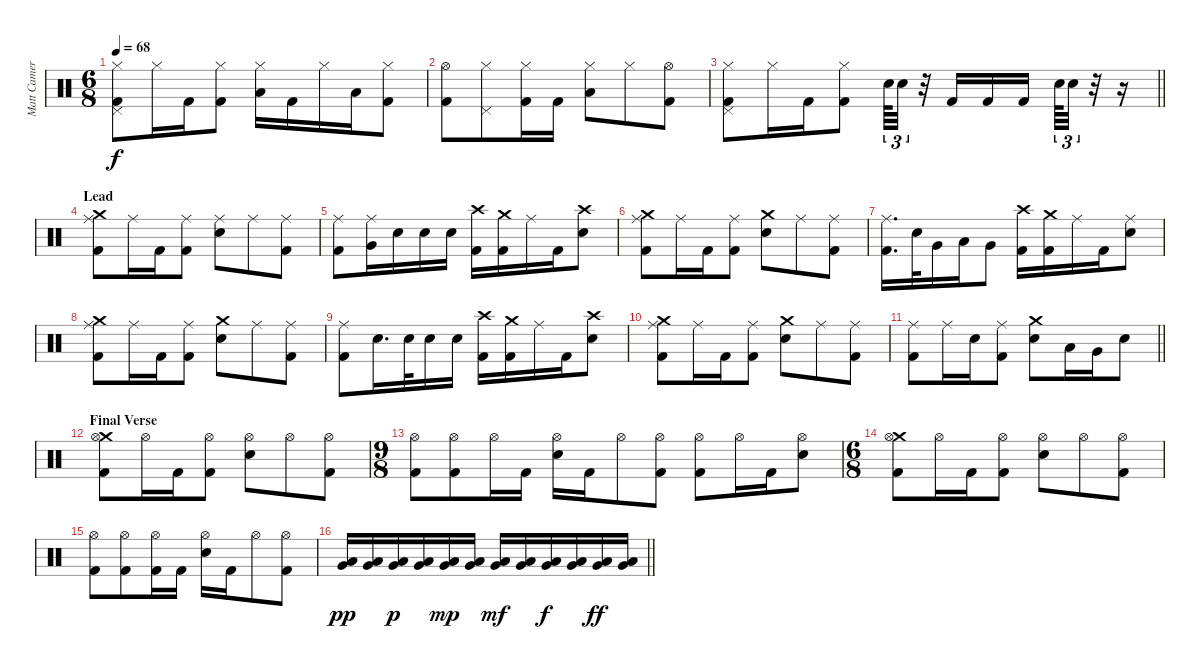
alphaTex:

\track ("Matt Cameron" "Matt Camer") {instrument percussion}
\staff {score}
\articulation defaults
\ts (6 8)
\tempo 68
\clef neutral
\ks c
("Pedal Hi-Hat (hit)" "Hi-Hat (closed)" "Kick (hit) 2").8{dy f} "Hi-Hat (closed)".16 "Kick (hit) 2".16 ("Hi-Hat (closed)" "Kick (hit) 2").8 ("Hi-Hat (closed)" "Low Tom (hit)").16 "Kick (hit) 2".16 "Hi-Hat (closed)".16 "Low Tom (hit)".16 ("Hi-Hat (closed)" "Kick (hit) 2").8 |
("Hi-Hat (open)" "Kick (hit) 2").8 ("Pedal Hi-Hat (hit)" "Hi-Hat (closed)").8 ("Hi-Hat (closed)" "Kick (hit) 2").16 "Kick (hit) 2".16 ("Hi-Hat (closed)" "Low Tom (hit)").8 "Hi-Hat (closed)".8 ("Hi-Hat (open)" "Kick (hit) 2").8 |
\barLineRight lightlight
("Pedal Hi-Hat (hit)" "Hi-Hat (closed)" "Kick (hit) 2").8 "Hi-Hat (closed)".16 "Kick (hit) 2".16 ("Hi-Hat (closed)" "Kick (hit) 2").8 "Electric Snare (hit)".64{tu (3 2)} "Electric Snare (hit)".32{tu (3 2)} r.32 "Kick (hit) 2".16 "Kick (hit) 2".16 "Kick (hit) 2".16{beam splitsecondary} "Electric Snare (hit)".64{tu (3 2)} "Electric Snare (hit)".32{tu (3 2)} r.32 r.16 |
\section ("" "Lead")
("Crash medium (hit)" "Ride (middle)" "Kick (hit) 2").8 "Ride (middle)".16 "Kick (hit) 2".16 ("Ride (middle)" "Kick (hit) 2").8 ("Ride (middle)" "Electric Snare (hit)").8 "Ride (middle)".8 ("Ride (middle)" "Kick (hit) 2").8 |
("Ride (middle)" "Kick (hit) 2").8 ("Ride (middle)" "Very Low Tom (hit)").16 "Electric Snare (hit)".16 "Electric Snare (hit)".16 "Electric Snare (hit)".16 ("Crash high (hit)" "Kick (hit) 2").16 ("Crash medium (hit)" "Kick (hit) 2").16 "Ride (middle)".16 "Kick (hit) 2".16 ("Crash high (hit)" "Electric Snare (hit)").8 |
("Crash medium (hit)" "Ride (middle)" "Kick (hit) 2").8 "Ride (middle)".16 "Kick (hit) 2".16 ("Ride (middle)" "Kick (hit) 2").8 ("Crash medium (hit)" "Electric Snare (hit)").8 "Ride (middle)".8 ("Ride (middle)" "Kick (hit) 2").8 |
("Ride (middle)" "Kick (hit) 2").16{d} "Electric Snare (hit)".32 "Very Low Tom (hit)".16 "Low Tom (hit)".16 "Very Low Tom (hit)".8 ("Crash high (hit)" "Kick (hit) 2").16 ("Crash medium (hit)" "Kick (hit) 2").16 "Ride (middle)".16 "Kick (hit) 2".16 ("Ride (middle)" "Electric Snare (hit)").8 |
("Crash medium (hit)" "Ride (middle)" "Kick (hit) 2").8 "Ride (middle)".16 "Kick (hit) 2".16 ("Ride (middle)" "Kick (hit) 2").8 ("Crash medium (hit)" "Electric Snare (hit)").8 "Ride (middle)".8 ("Ride (middle)" "Kick (hit) 2").8 |
("Ride (middle)" "Kick (hit) 2").8 "Electric Snare (hit)".16{d} "Electric Snare (hit)".32 "Electric Snare (hit)".16 "Electric Snare (hit)".16 ("Crash high (hit)" "Kick (hit) 2").16 ("Crash medium (hit)" "Kick (hit) 2").16 "Ride (middle)".16 "Kick (hit) 2".16 ("Crash high (hit)" "Electric Snare (hit)").8 |
("Crash medium (hit)" "Ride (middle)" "Kick (hit) 2").8 "Ride (middle)".16 "Kick (hit) 2".16 ("Ride (middle)" "Kick (hit) 2").8 ("Crash medium (hit)" "Electric Snare (hit)").8 "Ride (middle)".8 ("Ride (middle)" "Kick (hit) 2").8 |
\barLineRight lightlight
("Ride (middle)" "Kick (hit) 2").8 "Ride (middle)".16 "Electric Snare (hit)".16 ("Ride (middle)" "Kick (hit) 2").8 ("Crash medium (hit)" "Electric Snare (hit)").8 "Low Tom (hit)".16 "Very Low Tom (hit)".16 "Electric Snare (hit)".8 |
\section ("" "Final Verse")
("Crash medium (hit)" "Hi-Hat (open)" "Kick (hit) 2").8 "Hi-Hat (open)".16 "Kick (hit) 2".16 ("Hi-Hat (open)" "Kick (hit) 2").8 ("Hi-Hat (open)" "Electric Snare (hit)").8 "Hi-Hat (open)".8 ("Hi-Hat (open)" "Kick (hit) 2").8 |
\ts (9 8)
("Hi-Hat (open)" "Kick (hit) 2").8 ("Hi-Hat (open)" "Kick (hit) 2").8 "Hi-Hat (open)".16 "Kick (hit) 2".16 ("Hi-Hat (open)" "Electric Snare (hit)").16 "Kick (hit) 2".16 "Hi-Hat (open)".8 ("Hi-Hat (open)" "Kick (hit) 2").8 ("Hi-Hat (open)" "Kick (hit) 2").8 "Hi-Hat (open)".16 "Kick (hit) 2".16 ("Hi-Hat (open)" "Electric Snare (hit)").8 |
\ts (6 8)
("Crash medium (hit)" "Hi-Hat (open)" "Kick (hit) 2").8 "Hi-Hat (open)".16 "Kick (hit) 2".16 ("Hi-Hat (open)" "Kick (hit) 2").8 ("Hi-Hat (open)" "Electric Snare (hit)").8 "Hi-Hat (open)".8 ("Hi-Hat (open)" "Kick (hit) 2").8 |
("Hi-Hat (open)" "Kick (hit) 2").8 ("Hi-Hat (open)" "Kick (hit) 2").8 ("Hi-Hat (open)" "Kick (hit) 2").16 "Kick (hit) 2".16 ("Hi-Hat (open)" "Electric Snare (hit)").16 "Kick (hit) 2".16 "Hi-Hat (open)".8 ("Hi-Hat (open)" "Kick (hit) 2").8 |
\barLineRight lightlight
("Low Tom (hit)" "Very Low Tom (hit)").16{dy pp} ("Low Tom (hit)" "Very Low Tom (hit)").16 ("Low Tom (hit)" "Very Low Tom (hit)").16{dy p} ("Low Tom (hit)" "Very Low Tom (hit)").16 ("Low Tom (hit)" "Very Low Tom (hit)").16{dy mp} ("Low Tom (hit)" "Very Low Tom (hit)").16 ("Low Tom (hit)" "Very Low Tom (hit)").16{dy mf} ("Low Tom (hit)" "Very Low Tom (hit)").16 ("Low Tom (hit)" "Very Low Tom (hit)").16{dy f} ("Low Tom (hit)" "Very Low Tom (hit)").16 ("Low Tom (hit)" "Very Low Tom (hit)").16{dy ff} ("Low Tom (hit)" "Very Low Tom (hit)").16
